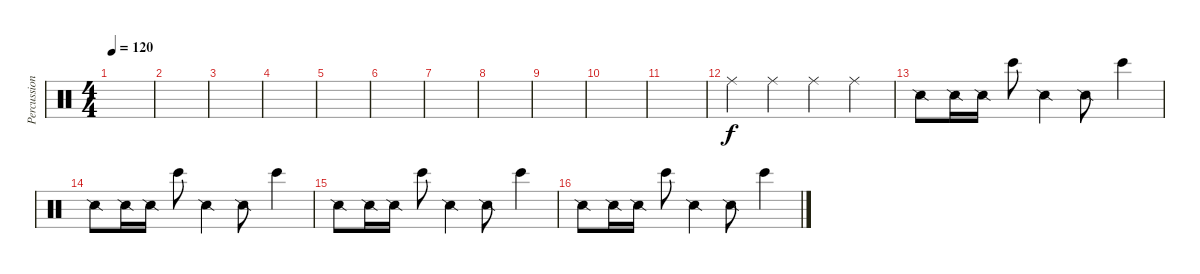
\track ("Percussion" "Percussion") {instrument percussion}
\staff {score}
\articulation defaults
\ts (4 4)
\tempo 120
\clef neutral
\ks c
|
|
|
|
|
|
|
|
|
|
|
"Ride (middle)".4 "Ride (middle)".4 "Ride (middle)".4 "Ride (middle)".4 |
"Snare (side stick) 2".8 "Snare (side stick) 2".16 "Snare (side stick) 2".16 "Bongo High (hit)".8 "Snare (side stick) 2".4 "Snare (side stick) 2".8 "Bongo High (hit)".4 |
"Snare (side stick) 2".8 "Snare (side stick) 2".16 "Snare (side stick) 2".16 "Bongo High (hit)".8 "Snare (side stick) 2".4 "Snare (side stick) 2".8 "Bongo High (hit)".4 |
"Snare (side stick) 2".8 "Snare (side stick) 2".16 "Snare (side stick) 2".16 "Bongo High (hit)".8 "Snare (side stick) 2".4 "Snare (side stick) 2".8 "Bongo High (hit)".4 |
"Snare (side stick) 2".8 "Snare (side stick) 2".16 "Snare (side stick) 2".16 "Bongo High (hit)".8 "Snare (side stick) 2".4 "Snare (side stick) 2".8 "Bongo High (hit)".4
